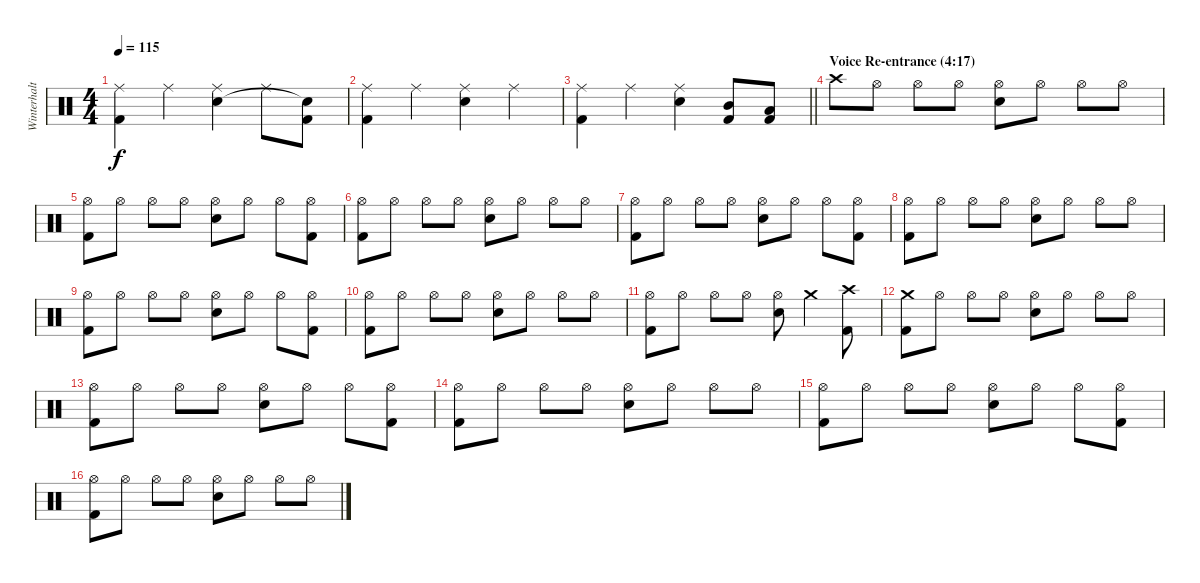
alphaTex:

\track ("Winterhalten" "Winterhalt") {instrument percussion}
\staff {score}
\articulation defaults
\ts (4 4)
\tempo 115
\clef neutral
\ks c
("Kick (hit) 2" "Ride (middle)").4{dy f} "Ride (middle)".4 ("Ride (middle)" "Snare (hit) 2").4 "Ride (middle)".8 ("Kick (hit) 2" "Snare (hit)"{t}).8 |
("Kick (hit) 2" "Ride (middle)").4 "Ride (middle)".4 ("Ride (middle)" "Snare (hit) 2").4 "Ride (middle)".4 |
\barLineRight lightlight
("Kick (hit) 2" "Ride (middle)").4 "Ride (middle)".4 ("Ride (middle)" "Snare (hit) 2").4 ("Kick (hit) 2" "Mid Tom (hit)").8 ("Kick (hit) 2" "Low Tom (hit)").8 |
\section ("" "Voice Re-entrance (4:17)")
"Crash high (hit)".8 "Hi-Hat (open)".8 "Hi-Hat (open)".8 "Hi-Hat (open)".8 ("Snare (hit) 2" "Hi-Hat (open)").8 "Hi-Hat (open)".8 "Hi-Hat (open)".8 "Hi-Hat (open)".8 |
("Hi-Hat (open)" "Kick (hit) 2").8 "Hi-Hat (open)".8 "Hi-Hat (open)".8 "Hi-Hat (open)".8 ("Snare (hit) 2" "Hi-Hat (open)").8 "Hi-Hat (open)".8 "Hi-Hat (open)".8 ("Hi-Hat (open)" "Kick (hit) 2").8 |
("Hi-Hat (open)" "Kick (hit) 2").8 "Hi-Hat (open)".8 "Hi-Hat (open)".8 "Hi-Hat (open)".8 ("Snare (hit) 2" "Hi-Hat (open)").8 "Hi-Hat (open)".8 "Hi-Hat (open)".8 "Hi-Hat (open)".8 |
("Hi-Hat (open)" "Kick (hit) 2").8 "Hi-Hat (open)".8 "Hi-Hat (open)".8 "Hi-Hat (open)".8 ("Snare (hit) 2" "Hi-Hat (open)").8 "Hi-Hat (open)".8 "Hi-Hat (open)".8 ("Hi-Hat (open)" "Kick (hit) 2").8 |
("Hi-Hat (open)" "Kick (hit) 2").8 "Hi-Hat (open)".8 "Hi-Hat (open)".8 "Hi-Hat (open)".8 ("Snare (hit) 2" "Hi-Hat (open)").8 "Hi-Hat (open)".8 "Hi-Hat (open)".8 "Hi-Hat (open)".8 |
("Hi-Hat (open)" "Kick (hit) 2").8 "Hi-Hat (open)".8 "Hi-Hat (open)".8 "Hi-Hat (open)".8 ("Snare (hit) 2" "Hi-Hat (open)").8 "Hi-Hat (open)".8 "Hi-Hat (open)".8 ("Hi-Hat (open)" "Kick (hit) 2").8 |
("Hi-Hat (open)" "Kick (hit) 2").8 "Hi-Hat (open)".8 "Hi-Hat (open)".8 "Hi-Hat (open)".8 ("Snare (hit) 2" "Hi-Hat (open)").8 "Hi-Hat (open)".8 "Hi-Hat (open)".8 "Hi-Hat (open)".8 |
("Hi-Hat (open)" "Kick (hit) 2").8 "Hi-Hat (open)".8 "Hi-Hat (open)".8 "Hi-Hat (open)".8 ("Snare (hit) 2" "Hi-Hat (open)").8 "Crash medium (hit)".4 ("Kick (hit) 2" "Crash high (hit)").8 |
("Kick (hit) 2" "Crash medium (hit)").8 "Hi-Hat (open)".8 "Hi-Hat (open)".8 "Hi-Hat (open)".8 ("Snare (hit) 2" "Hi-Hat (open)").8 "Hi-Hat (open)".8 "Hi-Hat (open)".8 "Hi-Hat (open)".8 |
("Hi-Hat (open)" "Kick (hit) 2").8 "Hi-Hat (open)".8 "Hi-Hat (open)".8 "Hi-Hat (open)".8 ("Snare (hit) 2" "Hi-Hat (open)").8 "Hi-Hat (open)".8 "Hi-Hat (open)".8 ("Hi-Hat (open)" "Kick (hit) 2").8 |
("Hi-Hat (open)" "Kick (hit) 2").8 "Hi-Hat (open)".8 "Hi-Hat (open)".8 "Hi-Hat (open)".8 ("Snare (hit) 2" "Hi-Hat (open)").8 "Hi-Hat (open)".8 "Hi-Hat (open)".8 "Hi-Hat (open)".8 |
("Hi-Hat (open)" "Kick (hit) 2").8 "Hi-Hat (open)".8 "Hi-Hat (open)".8 "Hi-Hat (open)".8 ("Snare (hit) 2" "Hi-Hat (open)").8 "Hi-Hat (open)".8 "Hi-Hat (open)".8 ("Hi-Hat (open)" "Kick (hit) 2").8 |
("Hi-Hat (open)" "Kick (hit) 2").8 "Hi-Hat (open)".8 "Hi-Hat (open)".8 "Hi-Hat (open)".8 ("Snare (hit) 2" "Hi-Hat (open)").8 "Hi-Hat (open)".8 "Hi-Hat (open)".8 "Hi-Hat (open)".8
